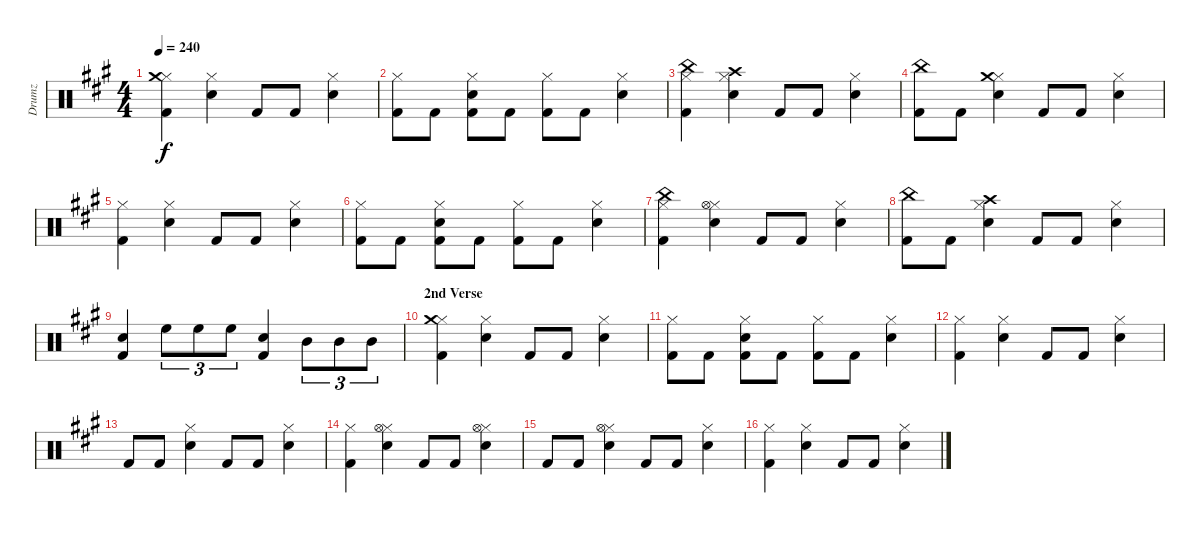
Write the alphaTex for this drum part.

\track ("Drumz" "Drumz") {instrument percussion}
\staff {score}
\articulation defaults
\ts (4 4)
\tempo 240
\clef neutral
\ks a
("Hi-Hat (closed)" "Crash medium (hit)" "Kick (hit) 2").4{dy f} ("Hi-Hat (closed)" "Electric Snare (hit)").4 "Kick (hit) 2".8 "Kick (hit) 2".8 ("Electric Snare (hit)" "Hi-Hat (closed)").4 |
("Hi-Hat (closed)" "Kick (hit) 2").8 "Kick (hit) 2".8 ("Hi-Hat (closed)" "Electric Snare (hit)" "Kick (hit) 2").8 "Kick (hit) 2".8 ("Hi-Hat (closed)" "Kick (hit) 2").8 "Kick (hit) 2".8 ("Hi-Hat (closed)" "Electric Snare (hit)").4 |
("Hi-Hat (closed)" "China (hit)" "Kick (hit) 2").4 ("Hi-Hat (closed)" "Crash high (hit)" "Electric Snare (hit)").4 "Kick (hit) 2".8 "Kick (hit) 2".8 ("Electric Snare (hit)" "Hi-Hat (closed)").4 |
("Kick (hit) 2" "China (hit)").8 "Kick (hit) 2".8 ("Hi-Hat (closed)" "Electric Snare (hit)" "Crash medium (hit)").4 "Kick (hit) 2".8 "Kick (hit) 2".8 ("Electric Snare (hit)" "Hi-Hat (closed)").4 |
("Hi-Hat (closed)" "Kick (hit) 2").4 ("Hi-Hat (closed)" "Electric Snare (hit)").4 "Kick (hit) 2".8 "Kick (hit) 2".8 ("Electric Snare (hit)" "Hi-Hat (closed)").4 |
("Hi-Hat (closed)" "Kick (hit) 2").8 "Kick (hit) 2".8 ("Hi-Hat (closed)" "Electric Snare (hit)" "Kick (hit) 2").8 "Kick (hit) 2".8 ("Hi-Hat (closed)" "Kick (hit) 2").8 "Kick (hit) 2".8 ("Hi-Hat (closed)" "Electric Snare (hit)").4 |
("Hi-Hat (closed)" "China (hit)" "Kick (hit) 2").4 ("Hi-Hat (closed)" "Hi-Hat (open)" "Electric Snare (hit)").4 "Kick (hit) 2".8 "Kick (hit) 2".8 ("Electric Snare (hit)" "Hi-Hat (closed)").4 |
("Kick (hit) 2" "China (hit)").8 "Kick (hit) 2".8 ("Hi-Hat (closed)" "Electric Snare (hit)" "Crash high (hit)").4 "Kick (hit) 2".8 "Kick (hit) 2".8 ("Electric Snare (hit)" "Hi-Hat (closed)").4 |
("Electric Snare (hit)" "Kick (hit) 2").4 "High Floor Tom (hit)".8{tu (3 2)} "High Floor Tom (hit)".8{tu (3 2)} "High Floor Tom (hit)".8{tu (3 2)} ("Electric Snare (hit)" "Kick (hit) 2").4 "Mid Tom (hit)".8{tu (3 2)} "Mid Tom (hit)".8{tu (3 2)} "Mid Tom (hit)".8{tu (3 2)} |
\section ("" "2nd Verse")
("Hi-Hat (closed)" "Crash medium (hit)" "Kick (hit) 2").4 ("Hi-Hat (closed)" "Electric Snare (hit)").4 "Kick (hit) 2".8 "Kick (hit) 2".8 ("Electric Snare (hit)" "Hi-Hat (closed)").4 |
("Hi-Hat (closed)" "Kick (hit) 2").8 "Kick (hit) 2".8 ("Hi-Hat (closed)" "Electric Snare (hit)" "Kick (hit) 2").8 "Kick (hit) 2".8 ("Hi-Hat (closed)" "Kick (hit) 2").8 "Kick (hit) 2".8 ("Hi-Hat (closed)" "Electric Snare (hit)").4 |
("Hi-Hat (closed)" "Kick (hit) 2").4 ("Hi-Hat (closed)" "Electric Snare (hit)").4 "Kick (hit) 2".8 "Kick (hit) 2".8 ("Electric Snare (hit)" "Hi-Hat (closed)").4 |
"Kick (hit) 2".8 "Kick (hit) 2".8 ("Hi-Hat (closed)" "Electric Snare (hit)").4 "Kick (hit) 2".8 "Kick (hit) 2".8 ("Electric Snare (hit)" "Hi-Hat (closed)").4 |
("Hi-Hat (closed)" "Kick (hit) 2").4 ("Hi-Hat (closed)" "Hi-Hat (open)" "Electric Snare (hit)").4 "Kick (hit) 2".8 "Kick (hit) 2".8 ("Electric Snare (hit)" "Hi-Hat (closed)" "Hi-Hat (open)").4 |
"Kick (hit) 2".8 "Kick (hit) 2".8 ("Hi-Hat (closed)" "Electric Snare (hit)" "Hi-Hat (open)").4 "Kick (hit) 2".8 "Kick (hit) 2".8 ("Electric Snare (hit)" "Hi-Hat (closed)").4 |
("Hi-Hat (closed)" "Kick (hit) 2").4 ("Hi-Hat (closed)" "Electric Snare (hit)").4 "Kick (hit) 2".8 "Kick (hit) 2".8 ("Electric Snare (hit)" "Hi-Hat (closed)").4
